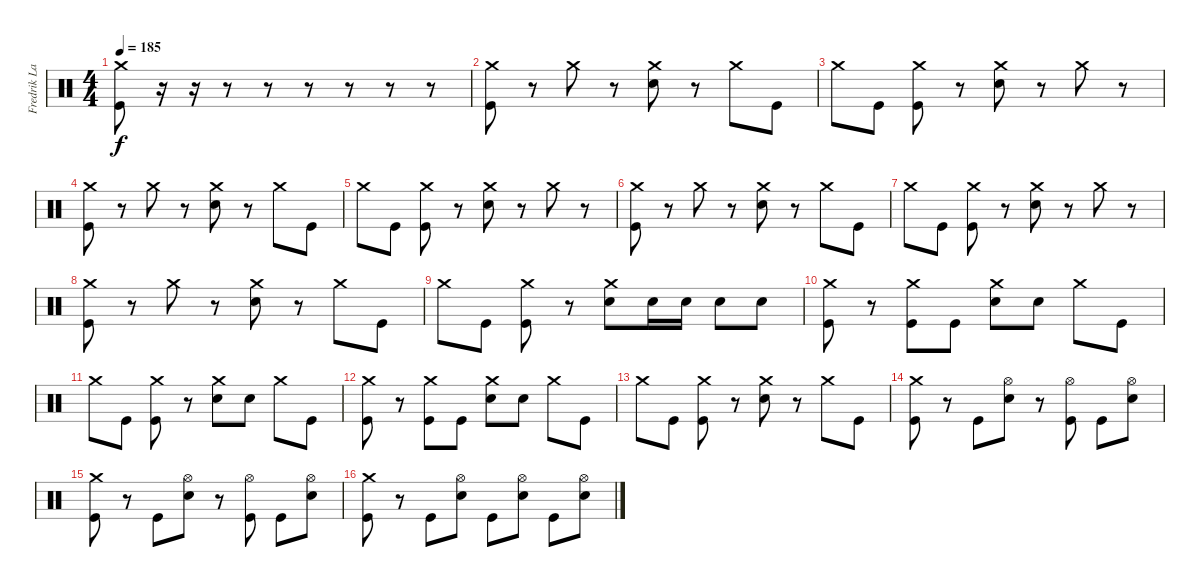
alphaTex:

\track ("Fredrik Larzon" "Fredrik La") {instrument percussion}
\staff {score}
\articulation defaults
\ts (4 4)
\tempo 185
\clef neutral
\ks c
("Crash medium (hit)" "Kick (hit)").8{dy f} r.16 r.16 r.8 r.8 r.8 r.8 r.8 r.8 |
("Crash medium (hit)" "Kick (hit)").8 r.8 "Crash medium (hit)".8 r.8 ("Crash medium (hit)" "Electric Snare (hit)").8 r.8 "Crash medium (hit)".8 "Kick (hit)".8 |
"Crash medium (hit)".8 "Kick (hit)".8 ("Crash medium (hit)" "Kick (hit)").8 r.8 ("Crash medium (hit)" "Electric Snare (hit)").8 r.8 "Crash medium (hit)".8 r.8 |
("Crash medium (hit)" "Kick (hit)").8 r.8 "Crash medium (hit)".8 r.8 ("Crash medium (hit)" "Electric Snare (hit)").8 r.8 "Crash medium (hit)".8 "Kick (hit)".8 |
"Crash medium (hit)".8 "Kick (hit)".8 ("Crash medium (hit)" "Kick (hit)").8 r.8 ("Crash medium (hit)" "Electric Snare (hit)").8 r.8 "Crash medium (hit)".8 r.8 |
("Crash medium (hit)" "Kick (hit)").8 r.8 "Crash medium (hit)".8 r.8 ("Crash medium (hit)" "Electric Snare (hit)").8 r.8 "Crash medium (hit)".8 "Kick (hit)".8 |
"Crash medium (hit)".8 "Kick (hit)".8 ("Crash medium (hit)" "Kick (hit)").8 r.8 ("Crash medium (hit)" "Electric Snare (hit)").8 r.8 "Crash medium (hit)".8 r.8 |
("Crash medium (hit)" "Kick (hit)").8 r.8 "Crash medium (hit)".8 r.8 ("Crash medium (hit)" "Electric Snare (hit)").8 r.8 "Crash medium (hit)".8 "Kick (hit)".8 |
"Crash medium (hit)".8 "Kick (hit)".8 ("Crash medium (hit)" "Kick (hit)").8 r.8 ("Crash medium (hit)" "Electric Snare (hit)").8 "Electric Snare (hit)".16 "Electric Snare (hit)".16 "Electric Snare (hit)".8 "Electric Snare (hit)".8 |
("Crash medium (hit)" "Kick (hit)").8 r.8 ("Crash medium (hit)" "Kick (hit)").8 "Kick (hit)".8 ("Crash medium (hit)" "Electric Snare (hit)").8 "Electric Snare (hit)".8 "Crash medium (hit)".8 "Kick (hit)".8 |
"Crash medium (hit)".8 "Kick (hit)".8 ("Crash medium (hit)" "Kick (hit)").8 r.8 ("Crash medium (hit)" "Electric Snare (hit)").8 "Electric Snare (hit)".8 "Crash medium (hit)".8 "Kick (hit)".8 |
("Crash medium (hit)" "Kick (hit)").8 r.8 ("Crash medium (hit)" "Kick (hit)").8 "Kick (hit)".8 ("Crash medium (hit)" "Electric Snare (hit)").8 "Electric Snare (hit)".8 "Crash medium (hit)".8 "Kick (hit)".8 |
"Crash medium (hit)".8 "Kick (hit)".8 ("Crash medium (hit)" "Kick (hit)").8 r.8 ("Crash medium (hit)" "Electric Snare (hit)").8 r.8 "Crash medium (hit)".8 "Kick (hit)".8 |
("Crash medium (hit)" "Kick (hit)").8 r.8 "Kick (hit)".8 ("Hi-Hat (open)" "Electric Snare (hit)").8 r.8 ("Hi-Hat (open)" "Kick (hit)").8 "Kick (hit)".8 ("Hi-Hat (open)" "Electric Snare (hit)").8 |
("Crash medium (hit)" "Kick (hit)").8 r.8 "Kick (hit)".8 ("Hi-Hat (open)" "Electric Snare (hit)").8 r.8 ("Hi-Hat (open)" "Kick (hit)").8 "Kick (hit)".8 ("Hi-Hat (open)" "Electric Snare (hit)").8 |
("Crash medium (hit)" "Kick (hit)").8 r.8 "Kick (hit)".8 ("Hi-Hat (open)" "Electric Snare (hit)").8 "Kick (hit)".8 ("Hi-Hat (open)" "Electric Snare (hit)").8 "Kick (hit)".8 ("Hi-Hat (open)" "Electric Snare (hit)").8
